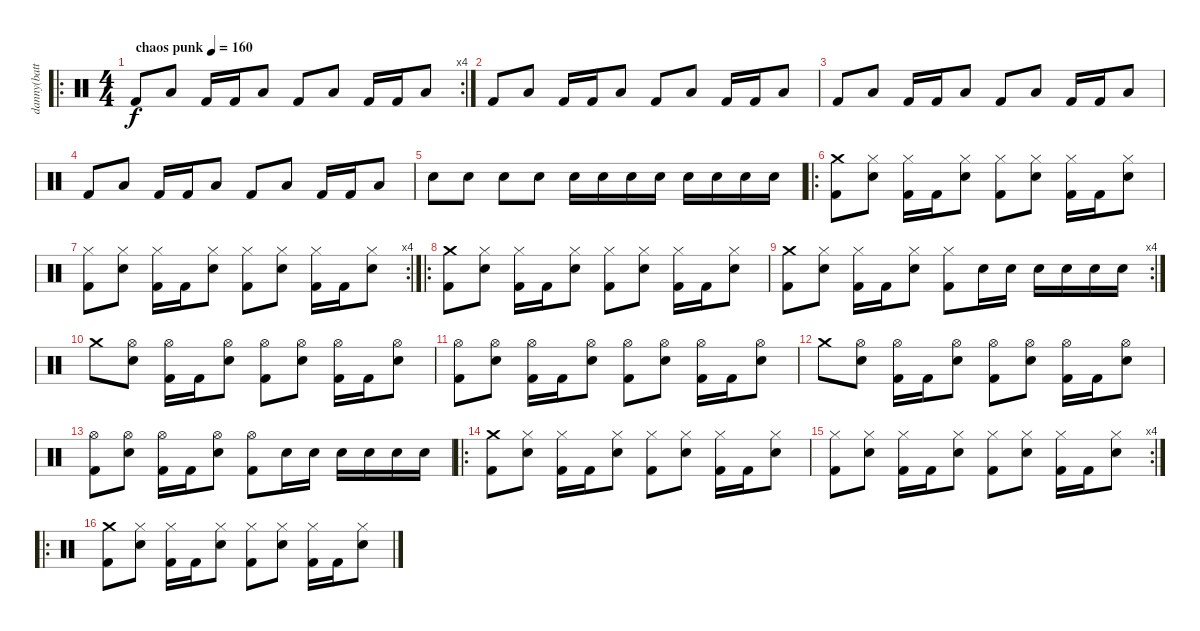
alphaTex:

\track ("danny(batterie)" "danny(batt") {instrument percussion}
\staff {score}
\articulation defaults
\ro
\rc 4
\ts (4 4)
\tempo (160 "chaos punk")
\clef neutral
\ks c "Kick (hit) 2".8{dy f} "Low Floor Tom (hit)".8 "Kick (hit) 2".16 "Kick (hit) 2".16 "Low Floor Tom (hit)".8 "Kick (hit) 2".8 "Low Floor Tom (hit)".8 "Kick (hit) 2".16 "Kick (hit) 2".16 "Low Floor Tom (hit)".8
|
"Kick (hit) 2".8 "Low Floor Tom (hit)".8 "Kick (hit) 2".16 "Kick (hit) 2".16 "Low Floor Tom (hit)".8 "Kick (hit) 2".8 "Low Floor Tom (hit)".8 "Kick (hit) 2".16 "Kick (hit) 2".16 "Low Floor Tom (hit)".8 |
"Kick (hit) 2".8 "Low Floor Tom (hit)".8 "Kick (hit) 2".16 "Kick (hit) 2".16 "Low Floor Tom (hit)".8 "Kick (hit) 2".8 "Low Floor Tom (hit)".8 "Kick (hit) 2".16 "Kick (hit) 2".16 "Low Floor Tom (hit)".8 |
"Kick (hit) 2".8 "Low Floor Tom (hit)".8 "Kick (hit) 2".16 "Kick (hit) 2".16 "Low Floor Tom (hit)".8 "Kick (hit) 2".8 "Low Floor Tom (hit)".8 "Kick (hit) 2".16 "Kick (hit) 2".16 "Low Floor Tom (hit)".8 |
"Snare (hit) 2".8 "Snare (hit) 2".8 "Snare (hit) 2".8 "Snare (hit) 2".8 "Snare (hit) 2".16 "Snare (hit) 2".16 "Snare (hit) 2".16 "Snare (hit) 2".16 "Snare (hit) 2".16 "Snare (hit) 2".16 "Snare (hit) 2".16 "Snare (hit) 2".16 |
\ro
("Crash medium (hit)" "Kick (hit) 2").8 ("Hi-Hat (closed)" "Snare (hit) 2").8 ("Hi-Hat (closed)" "Kick (hit) 2").16 "Kick (hit) 2".16 ("Hi-Hat (closed)" "Snare (hit) 2").8 ("Hi-Hat (closed)" "Kick (hit) 2").8 ("Hi-Hat (closed)" "Snare (hit) 2").8 ("Hi-Hat (closed)" "Kick (hit) 2").16 "Kick (hit) 2".16 ("Hi-Hat (closed)" "Snare (hit) 2").8 |
\rc 4
("Hi-Hat (closed)" "Kick (hit) 2").8 ("Hi-Hat (closed)" "Snare (hit) 2").8 ("Hi-Hat (closed)" "Kick (hit) 2").16 "Kick (hit) 2".16 ("Hi-Hat (closed)" "Snare (hit) 2").8 ("Hi-Hat (closed)" "Kick (hit) 2").8 ("Hi-Hat (closed)" "Snare (hit) 2").8 ("Hi-Hat (closed)" "Kick (hit) 2").16 "Kick (hit) 2".16 ("Hi-Hat (closed)" "Snare (hit) 2").8 |
\ro
("Crash medium (hit)" "Kick (hit) 2").8 ("Hi-Hat (closed)" "Snare (hit) 2").8 ("Hi-Hat (closed)" "Kick (hit) 2").16 "Kick (hit) 2".16 ("Hi-Hat (closed)" "Snare (hit) 2").8 ("Hi-Hat (closed)" "Kick (hit) 2").8 ("Hi-Hat (closed)" "Snare (hit) 2").8 ("Hi-Hat (closed)" "Kick (hit) 2").16 "Kick (hit) 2".16 ("Hi-Hat (closed)" "Snare (hit) 2").8 |
\rc 4
("Crash medium (hit)" "Kick (hit) 2").8 ("Hi-Hat (closed)" "Snare (hit) 2").8 ("Hi-Hat (closed)" "Kick (hit) 2").16 "Kick (hit) 2".16 ("Hi-Hat (closed)" "Snare (hit) 2").8 ("Hi-Hat (closed)" "Kick (hit) 2").8 "Snare (hit) 2".16 "Snare (hit) 2".16 "Snare (hit) 2".16 "Snare (hit) 2".16 "Snare (hit) 2".16 "Snare (hit) 2".16 |
"Crash medium (hit)".8 ("Hi-Hat (open)" "Snare (hit) 2").8 ("Hi-Hat (open)" "Kick (hit) 2").16 "Kick (hit) 2".16 ("Hi-Hat (open)" "Snare (hit) 2").8 ("Hi-Hat (open)" "Kick (hit) 2").8 ("Hi-Hat (open)" "Snare (hit) 2").8 ("Hi-Hat (open)" "Kick (hit) 2").16 "Kick (hit) 2".16 ("Hi-Hat (open)" "Snare (hit) 2").8 |
("Hi-Hat (open)" "Kick (hit) 2").8 ("Hi-Hat (open)" "Snare (hit) 2").8 ("Hi-Hat (open)" "Kick (hit) 2").16 "Kick (hit) 2".16 ("Hi-Hat (open)" "Snare (hit) 2").8 ("Hi-Hat (open)" "Kick (hit) 2").8 ("Hi-Hat (open)" "Snare (hit) 2").8 ("Hi-Hat (open)" "Kick (hit) 2").16 "Kick (hit) 2".16 ("Hi-Hat (open)" "Snare (hit) 2").8 |
"Crash medium (hit)".8 ("Hi-Hat (open)" "Snare (hit) 2").8 ("Hi-Hat (open)" "Kick (hit) 2").16 "Kick (hit) 2".16 ("Hi-Hat (open)" "Snare (hit) 2").8 ("Hi-Hat (open)" "Kick (hit) 2").8 ("Hi-Hat (open)" "Snare (hit) 2").8 ("Hi-Hat (open)" "Kick (hit) 2").16 "Kick (hit) 2".16 ("Hi-Hat (open)" "Snare (hit) 2").8 |
("Hi-Hat (open)" "Kick (hit) 2").8 ("Hi-Hat (open)" "Snare (hit) 2").8 ("Hi-Hat (open)" "Kick (hit) 2").16 "Kick (hit) 2".16 ("Hi-Hat (open)" "Snare (hit) 2").8 ("Hi-Hat (open)" "Kick (hit) 2").8 "Snare (hit) 2".16 "Snare (hit) 2".16 "Snare (hit) 2".16 "Snare (hit) 2".16 "Snare (hit) 2".16 "Snare (hit) 2".16 |
\ro
("Crash medium (hit)" "Kick (hit) 2").8 ("Hi-Hat (closed)" "Snare (hit) 2").8 ("Hi-Hat (closed)" "Kick (hit) 2").16 "Kick (hit) 2".16 ("Hi-Hat (closed)" "Snare (hit) 2").8 ("Hi-Hat (closed)" "Kick (hit) 2").8 ("Hi-Hat (closed)" "Snare (hit) 2").8 ("Hi-Hat (closed)" "Kick (hit) 2").16 "Kick (hit) 2".16 ("Hi-Hat (closed)" "Snare (hit) 2").8 |
\rc 4
("Hi-Hat (closed)" "Kick (hit) 2").8 ("Hi-Hat (closed)" "Snare (hit) 2").8 ("Hi-Hat (closed)" "Kick (hit) 2").16 "Kick (hit) 2".16 ("Hi-Hat (closed)" "Snare (hit) 2").8 ("Hi-Hat (closed)" "Kick (hit) 2").8 ("Hi-Hat (closed)" "Snare (hit) 2").8 ("Hi-Hat (closed)" "Kick (hit) 2").16 "Kick (hit) 2".16 ("Hi-Hat (closed)" "Snare (hit) 2").8 |
\ro
("Crash medium (hit)" "Kick (hit) 2").8 ("Hi-Hat (closed)" "Snare (hit) 2").8 ("Hi-Hat (closed)" "Kick (hit) 2").16 "Kick (hit) 2".16 ("Hi-Hat (closed)" "Snare (hit) 2").8 ("Hi-Hat (closed)" "Kick (hit) 2").8 ("Hi-Hat (closed)" "Snare (hit) 2").8 ("Hi-Hat (closed)" "Kick (hit) 2").16 "Kick (hit) 2".16 ("Hi-Hat (closed)" "Snare (hit) 2").8
